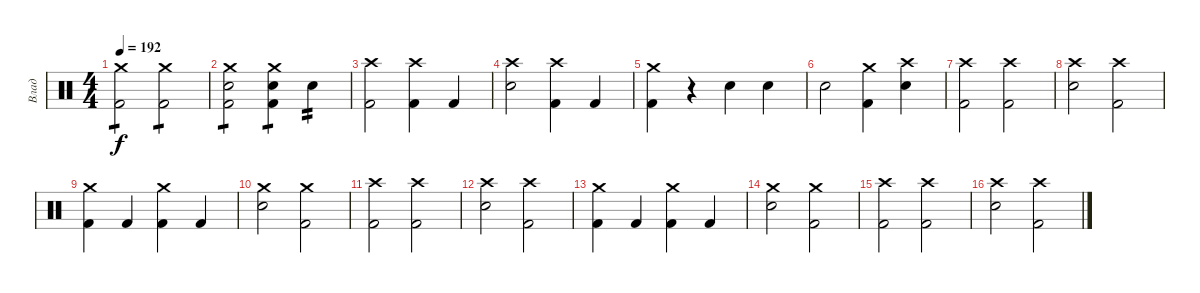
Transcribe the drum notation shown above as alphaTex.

\track ("Влад" "Влад") {instrument percussion}
\staff {score}
\articulation defaults
\ts (4 4)
\tempo 192
\clef neutral
\ks c
("Crash medium (hit)" "Kick (hit) 2").2{tp 1 dy f} ("Crash medium (hit)" "Kick (hit) 2").2{tp 1} |
("Crash medium (hit)" "Kick (hit) 2" "Snare (hit) 2").2{tp 1} ("Crash medium (hit)" "Kick (hit) 2" "Snare (hit) 2").4{tp 1} "Snare (hit) 2".4{tp 2} |
("Crash high (hit)" "Kick (hit) 2").2 ("Crash high (hit)" "Kick (hit) 2").4 "Kick (hit) 2".4 |
("Crash high (hit)" "Snare (hit) 2").2 ("Crash high (hit)" "Kick (hit) 2").4 "Kick (hit) 2".4 |
("Crash medium (hit)" "Kick (hit) 2").4 r.4 "Snare (hit) 2".4 "Snare (hit) 2".4 |
"Snare (hit) 2"{tr (38 16)}.2 ("Crash medium (hit)" "Kick (hit) 2").4 ("Crash high (hit)" "Snare (hit) 2"{tr (38 16)}).4 |
("Crash high (hit)" "Kick (hit) 2").2 ("Crash high (hit)" "Kick (hit) 2").2 |
("Crash high (hit)" "Snare (hit) 2").2 ("Crash high (hit)" "Kick (hit) 2").2 |
("Crash medium (hit)" "Kick (hit) 2").4 "Kick (hit) 2".4 ("Crash medium (hit)" "Kick (hit) 2").4 "Kick (hit) 2".4 |
("Crash medium (hit)" "Snare (hit) 2").2 ("Crash medium (hit)" "Kick (hit) 2").2 |
("Crash high (hit)" "Kick (hit) 2").2 ("Crash high (hit)" "Kick (hit) 2").2 |
("Crash high (hit)" "Snare (hit) 2").2 ("Crash high (hit)" "Kick (hit) 2").2 |
("Crash medium (hit)" "Kick (hit) 2").4 "Kick (hit) 2".4 ("Crash medium (hit)" "Kick (hit) 2").4 "Kick (hit) 2".4 |
("Crash medium (hit)" "Snare (hit) 2").2 ("Crash medium (hit)" "Kick (hit) 2").2 |
("Crash high (hit)" "Kick (hit) 2").2 ("Crash high (hit)" "Kick (hit) 2").2 |
("Crash high (hit)" "Snare (hit) 2").2 ("Crash high (hit)" "Kick (hit) 2").2
